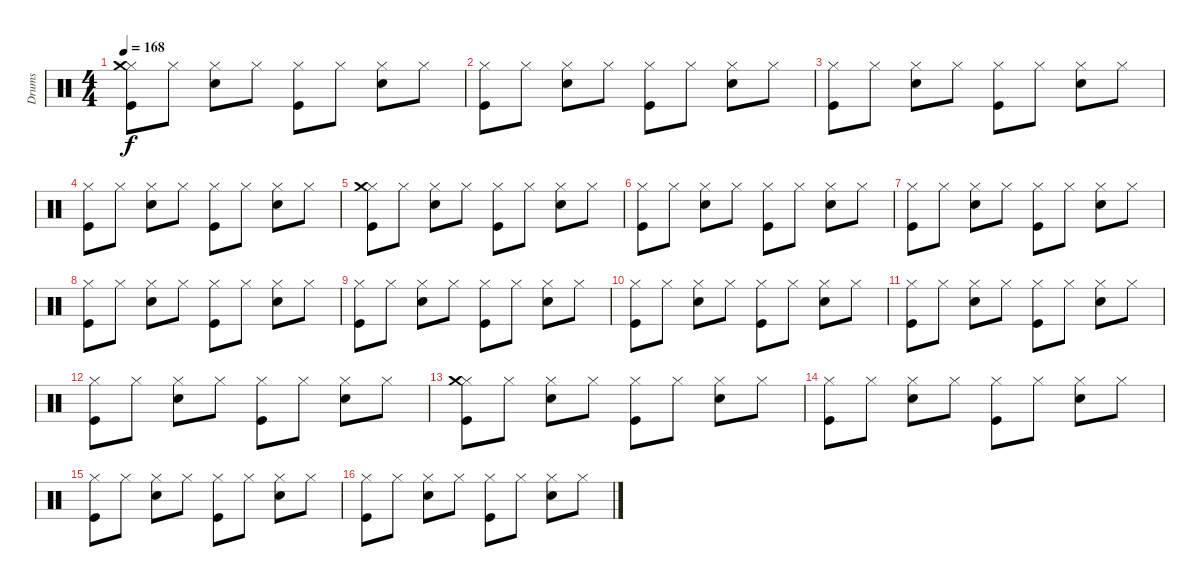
\track ("Drums" "Drums") {instrument percussion}
\staff {score}
\articulation defaults
\ts (4 4)
\tempo 168
\clef neutral
\ks c
("Kick (hit)" "Hi-Hat (closed)" "Crash medium (hit)").8{dy f} "Hi-Hat (closed)".8 ("Snare (hit) 2" "Hi-Hat (closed)").8 "Hi-Hat (closed)".8 ("Kick (hit)" "Hi-Hat (closed)").8 "Hi-Hat (closed)".8 ("Snare (hit) 2" "Hi-Hat (closed)").8 "Hi-Hat (closed)".8 |
("Kick (hit)" "Hi-Hat (closed)").8 "Hi-Hat (closed)".8 ("Snare (hit) 2" "Hi-Hat (closed)").8 "Hi-Hat (closed)".8 ("Kick (hit)" "Hi-Hat (closed)").8 "Hi-Hat (closed)".8 ("Snare (hit) 2" "Hi-Hat (closed)").8 "Hi-Hat (closed)".8 |
("Kick (hit)" "Hi-Hat (closed)").8 "Hi-Hat (closed)".8 ("Snare (hit) 2" "Hi-Hat (closed)").8 "Hi-Hat (closed)".8 ("Kick (hit)" "Hi-Hat (closed)").8 "Hi-Hat (closed)".8 ("Snare (hit) 2" "Hi-Hat (closed)").8 "Hi-Hat (closed)".8 |
("Kick (hit)" "Hi-Hat (closed)").8 "Hi-Hat (closed)".8 ("Snare (hit) 2" "Hi-Hat (closed)").8 "Hi-Hat (closed)".8 ("Kick (hit)" "Hi-Hat (closed)").8 "Hi-Hat (closed)".8 ("Snare (hit) 2" "Hi-Hat (closed)").8 "Hi-Hat (closed)".8 |
("Kick (hit)" "Hi-Hat (closed)" "Crash medium (hit)").8 "Hi-Hat (closed)".8 ("Snare (hit) 2" "Hi-Hat (closed)").8 "Hi-Hat (closed)".8 ("Kick (hit)" "Hi-Hat (closed)").8 "Hi-Hat (closed)".8 ("Snare (hit) 2" "Hi-Hat (closed)").8 "Hi-Hat (closed)".8 |
("Kick (hit)" "Hi-Hat (closed)").8 "Hi-Hat (closed)".8 ("Snare (hit) 2" "Hi-Hat (closed)").8 "Hi-Hat (closed)".8 ("Kick (hit)" "Hi-Hat (closed)").8 "Hi-Hat (closed)".8 ("Snare (hit) 2" "Hi-Hat (closed)").8 "Hi-Hat (closed)".8 |
("Kick (hit)" "Hi-Hat (closed)").8 "Hi-Hat (closed)".8 ("Snare (hit) 2" "Hi-Hat (closed)").8 "Hi-Hat (closed)".8 ("Kick (hit)" "Hi-Hat (closed)").8 "Hi-Hat (closed)".8 ("Snare (hit) 2" "Hi-Hat (closed)").8 "Hi-Hat (closed)".8 |
("Kick (hit)" "Hi-Hat (closed)").8 "Hi-Hat (closed)".8 ("Snare (hit) 2" "Hi-Hat (closed)").8 "Hi-Hat (closed)".8 ("Kick (hit)" "Hi-Hat (closed)").8 "Hi-Hat (closed)".8 ("Snare (hit) 2" "Hi-Hat (closed)").8 "Hi-Hat (closed)".8 |
("Kick (hit)" "Hi-Hat (closed)").8 "Hi-Hat (closed)".8 ("Snare (hit) 2" "Hi-Hat (closed)").8 "Hi-Hat (closed)".8 ("Kick (hit)" "Hi-Hat (closed)").8 "Hi-Hat (closed)".8 ("Snare (hit) 2" "Hi-Hat (closed)").8 "Hi-Hat (closed)".8 |
("Kick (hit)" "Hi-Hat (closed)").8 "Hi-Hat (closed)".8 ("Snare (hit) 2" "Hi-Hat (closed)").8 "Hi-Hat (closed)".8 ("Kick (hit)" "Hi-Hat (closed)").8 "Hi-Hat (closed)".8 ("Snare (hit) 2" "Hi-Hat (closed)").8 "Hi-Hat (closed)".8 |
("Kick (hit)" "Hi-Hat (closed)").8 "Hi-Hat (closed)".8 ("Snare (hit) 2" "Hi-Hat (closed)").8 "Hi-Hat (closed)".8 ("Kick (hit)" "Hi-Hat (closed)").8 "Hi-Hat (closed)".8 ("Snare (hit) 2" "Hi-Hat (closed)").8 "Hi-Hat (closed)".8 |
("Kick (hit)" "Hi-Hat (closed)").8 "Hi-Hat (closed)".8 ("Snare (hit) 2" "Hi-Hat (closed)").8 "Hi-Hat (closed)".8 ("Kick (hit)" "Hi-Hat (closed)").8 "Hi-Hat (closed)".8 ("Snare (hit) 2" "Hi-Hat (closed)").8 "Hi-Hat (closed)".8 |
("Kick (hit)" "Hi-Hat (closed)" "Crash medium (hit)").8 "Hi-Hat (closed)".8 ("Snare (hit) 2" "Hi-Hat (closed)").8 "Hi-Hat (closed)".8 ("Kick (hit)" "Hi-Hat (closed)").8 "Hi-Hat (closed)".8 ("Snare (hit) 2" "Hi-Hat (closed)").8 "Hi-Hat (closed)".8 |
("Kick (hit)" "Hi-Hat (closed)").8 "Hi-Hat (closed)".8 ("Snare (hit) 2" "Hi-Hat (closed)").8 "Hi-Hat (closed)".8 ("Kick (hit)" "Hi-Hat (closed)").8 "Hi-Hat (closed)".8 ("Snare (hit) 2" "Hi-Hat (closed)").8 "Hi-Hat (closed)".8 |
("Kick (hit)" "Hi-Hat (closed)").8 "Hi-Hat (closed)".8 ("Snare (hit) 2" "Hi-Hat (closed)").8 "Hi-Hat (closed)".8 ("Kick (hit)" "Hi-Hat (closed)").8 "Hi-Hat (closed)".8 ("Snare (hit) 2" "Hi-Hat (closed)").8 "Hi-Hat (closed)".8 |
("Kick (hit)" "Hi-Hat (closed)").8 "Hi-Hat (closed)".8 ("Snare (hit) 2" "Hi-Hat (closed)").8 "Hi-Hat (closed)".8 ("Kick (hit)" "Hi-Hat (closed)").8 "Hi-Hat (closed)".8 ("Snare (hit) 2" "Hi-Hat (closed)").8 "Hi-Hat (closed)".8
